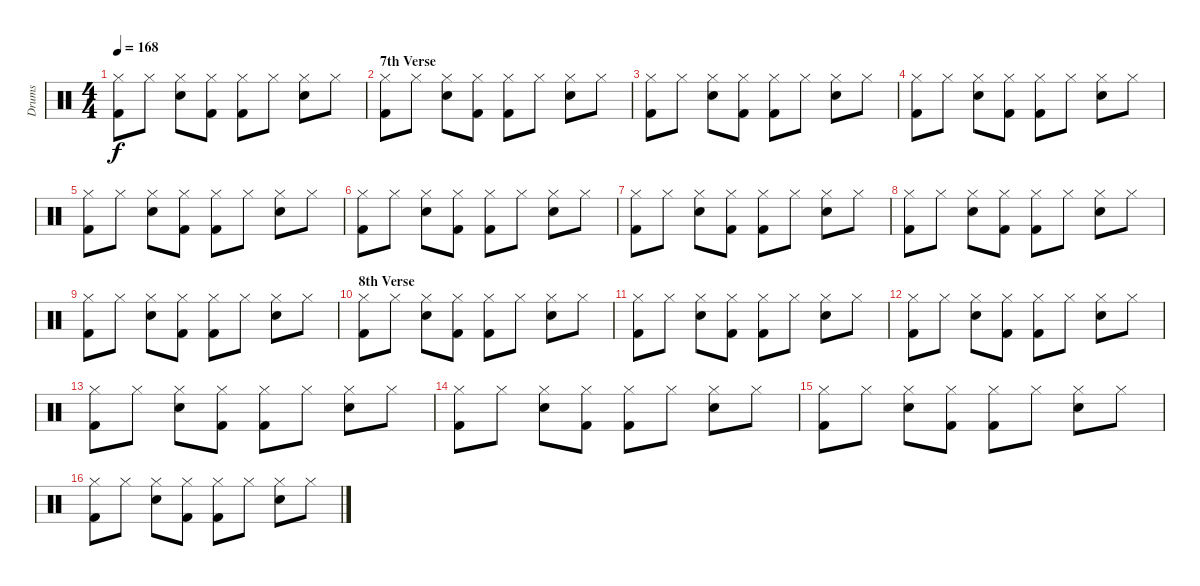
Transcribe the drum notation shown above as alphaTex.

\track ("Drums" "Drums") {instrument percussion}
\staff {score}
\articulation defaults
\ts (4 4)
\tempo 168
\clef neutral
\ks c
("Kick (hit) 2" "Hi-Hat (closed)").8{dy f} "Hi-Hat (closed)".8 ("Snare (hit) 2" "Hi-Hat (closed)").8 ("Kick (hit) 2" "Hi-Hat (closed)").8 ("Kick (hit) 2" "Hi-Hat (closed)").8 "Hi-Hat (closed)".8 ("Snare (hit) 2" "Hi-Hat (closed)").8 "Hi-Hat (closed)".8 |
\section ("" "7th Verse")
("Kick (hit) 2" "Hi-Hat (closed)").8 "Hi-Hat (closed)".8 ("Snare (hit) 2" "Hi-Hat (closed)").8 ("Kick (hit) 2" "Hi-Hat (closed)").8 ("Kick (hit) 2" "Hi-Hat (closed)").8 "Hi-Hat (closed)".8 ("Snare (hit) 2" "Hi-Hat (closed)").8 "Hi-Hat (closed)".8 |
("Kick (hit) 2" "Hi-Hat (closed)").8 "Hi-Hat (closed)".8 ("Snare (hit) 2" "Hi-Hat (closed)").8 ("Kick (hit) 2" "Hi-Hat (closed)").8 ("Kick (hit) 2" "Hi-Hat (closed)").8 "Hi-Hat (closed)".8 ("Snare (hit) 2" "Hi-Hat (closed)").8 "Hi-Hat (closed)".8 |
("Kick (hit) 2" "Hi-Hat (closed)").8 "Hi-Hat (closed)".8 ("Snare (hit) 2" "Hi-Hat (closed)").8 ("Kick (hit) 2" "Hi-Hat (closed)").8 ("Kick (hit) 2" "Hi-Hat (closed)").8 "Hi-Hat (closed)".8 ("Snare (hit) 2" "Hi-Hat (closed)").8 "Hi-Hat (closed)".8 |
("Kick (hit) 2" "Hi-Hat (closed)").8 "Hi-Hat (closed)".8 ("Snare (hit) 2" "Hi-Hat (closed)").8 ("Kick (hit) 2" "Hi-Hat (closed)").8 ("Kick (hit) 2" "Hi-Hat (closed)").8 "Hi-Hat (closed)".8 ("Snare (hit) 2" "Hi-Hat (closed)").8 "Hi-Hat (closed)".8 |
("Kick (hit) 2" "Hi-Hat (closed)").8 "Hi-Hat (closed)".8 ("Snare (hit) 2" "Hi-Hat (closed)").8 ("Kick (hit) 2" "Hi-Hat (closed)").8 ("Kick (hit) 2" "Hi-Hat (closed)").8 "Hi-Hat (closed)".8 ("Snare (hit) 2" "Hi-Hat (closed)").8 "Hi-Hat (closed)".8 |
("Kick (hit) 2" "Hi-Hat (closed)").8 "Hi-Hat (closed)".8 ("Snare (hit) 2" "Hi-Hat (closed)").8 ("Kick (hit) 2" "Hi-Hat (closed)").8 ("Kick (hit) 2" "Hi-Hat (closed)").8 "Hi-Hat (closed)".8 ("Snare (hit) 2" "Hi-Hat (closed)").8 "Hi-Hat (closed)".8 |
("Kick (hit) 2" "Hi-Hat (closed)").8 "Hi-Hat (closed)".8 ("Snare (hit) 2" "Hi-Hat (closed)").8 ("Kick (hit) 2" "Hi-Hat (closed)").8 ("Kick (hit) 2" "Hi-Hat (closed)").8 "Hi-Hat (closed)".8 ("Snare (hit) 2" "Hi-Hat (closed)").8 "Hi-Hat (closed)".8 |
("Kick (hit) 2" "Hi-Hat (closed)").8 "Hi-Hat (closed)".8 ("Snare (hit) 2" "Hi-Hat (closed)").8 ("Kick (hit) 2" "Hi-Hat (closed)").8 ("Kick (hit) 2" "Hi-Hat (closed)").8 "Hi-Hat (closed)".8 ("Snare (hit) 2" "Hi-Hat (closed)").8 "Hi-Hat (closed)".8 |
\section ("" "8th Verse")
("Kick (hit) 2" "Hi-Hat (closed)").8 "Hi-Hat (closed)".8 ("Snare (hit) 2" "Hi-Hat (closed)").8 ("Kick (hit) 2" "Hi-Hat (closed)").8 ("Kick (hit) 2" "Hi-Hat (closed)").8 "Hi-Hat (closed)".8 ("Snare (hit) 2" "Hi-Hat (closed)").8 "Hi-Hat (closed)".8 |
("Kick (hit) 2" "Hi-Hat (closed)").8 "Hi-Hat (closed)".8 ("Snare (hit) 2" "Hi-Hat (closed)").8 ("Kick (hit) 2" "Hi-Hat (closed)").8 ("Kick (hit) 2" "Hi-Hat (closed)").8 "Hi-Hat (closed)".8 ("Snare (hit) 2" "Hi-Hat (closed)").8 "Hi-Hat (closed)".8 |
("Kick (hit) 2" "Hi-Hat (closed)").8 "Hi-Hat (closed)".8 ("Snare (hit) 2" "Hi-Hat (closed)").8 ("Kick (hit) 2" "Hi-Hat (closed)").8 ("Kick (hit) 2" "Hi-Hat (closed)").8 "Hi-Hat (closed)".8 ("Snare (hit) 2" "Hi-Hat (closed)").8 "Hi-Hat (closed)".8 |
("Kick (hit) 2" "Hi-Hat (closed)").8 "Hi-Hat (closed)".8 ("Snare (hit) 2" "Hi-Hat (closed)").8 ("Kick (hit) 2" "Hi-Hat (closed)").8 ("Kick (hit) 2" "Hi-Hat (closed)").8 "Hi-Hat (closed)".8 ("Snare (hit) 2" "Hi-Hat (closed)").8 "Hi-Hat (closed)".8 |
("Kick (hit) 2" "Hi-Hat (closed)").8 "Hi-Hat (closed)".8 ("Snare (hit) 2" "Hi-Hat (closed)").8 ("Kick (hit) 2" "Hi-Hat (closed)").8 ("Kick (hit) 2" "Hi-Hat (closed)").8 "Hi-Hat (closed)".8 ("Snare (hit) 2" "Hi-Hat (closed)").8 "Hi-Hat (closed)".8 |
("Kick (hit) 2" "Hi-Hat (closed)").8 "Hi-Hat (closed)".8 ("Snare (hit) 2" "Hi-Hat (closed)").8 ("Kick (hit) 2" "Hi-Hat (closed)").8 ("Kick (hit) 2" "Hi-Hat (closed)").8 "Hi-Hat (closed)".8 ("Snare (hit) 2" "Hi-Hat (closed)").8 "Hi-Hat (closed)".8 |
("Kick (hit) 2" "Hi-Hat (closed)").8 "Hi-Hat (closed)".8 ("Snare (hit) 2" "Hi-Hat (closed)").8 ("Kick (hit) 2" "Hi-Hat (closed)").8 ("Kick (hit) 2" "Hi-Hat (closed)").8 "Hi-Hat (closed)".8 ("Snare (hit) 2" "Hi-Hat (closed)").8 "Hi-Hat (closed)".8
